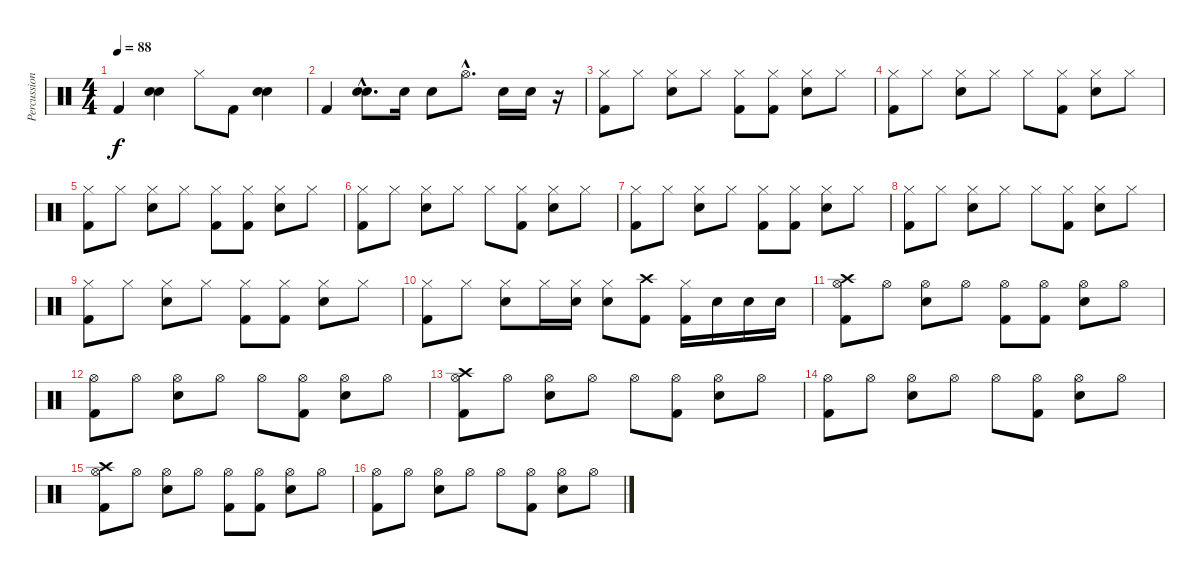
\track ("Percussion" "Percussion") {instrument percussion}
\staff {score}
\articulation defaults
\ts (4 4)
\tempo 88
\clef neutral
\ks c "Kick (hit) 2".4{dy f}
("Snare (hit) 2" "Snare (hit) 2").4 "Hi-Hat (closed)".8 "Kick (hit) 2".8 ("Snare (hit) 2" "Snare (hit) 2").4 |
"Kick (hit) 2".4 ("Snare (hit) 2"{hac} "Snare (hit) 2"{hac}).8{d} "Snare (hit) 2".16 "Snare (hit) 2".8 "Hi-Hat (open)"{hac}.8{d} "Snare (hit) 2".16 "Snare (hit) 2".16 r.16 |
("Hi-Hat (closed)" "Kick (hit) 2").8 "Hi-Hat (closed)".8 ("Hi-Hat (closed)" "Snare (hit) 2").8 "Hi-Hat (closed)".8 ("Hi-Hat (closed)" "Kick (hit) 2").8 ("Hi-Hat (closed)" "Kick (hit) 2").8 ("Hi-Hat (closed)" "Snare (hit) 2").8 "Hi-Hat (closed)".8 |
("Hi-Hat (closed)" "Kick (hit) 2").8 "Hi-Hat (closed)".8 ("Hi-Hat (closed)" "Snare (hit) 2").8 "Hi-Hat (closed)".8 "Hi-Hat (closed)".8 ("Hi-Hat (closed)" "Kick (hit) 2").8 ("Hi-Hat (closed)" "Snare (hit) 2").8 "Hi-Hat (closed)".8 |
("Hi-Hat (closed)" "Kick (hit) 2").8 "Hi-Hat (closed)".8 ("Hi-Hat (closed)" "Snare (hit) 2").8 "Hi-Hat (closed)".8 ("Hi-Hat (closed)" "Kick (hit) 2").8 ("Hi-Hat (closed)" "Kick (hit) 2").8 ("Hi-Hat (closed)" "Snare (hit) 2").8 "Hi-Hat (closed)".8 |
("Hi-Hat (closed)" "Kick (hit) 2").8 "Hi-Hat (closed)".8 ("Hi-Hat (closed)" "Snare (hit) 2").8 "Hi-Hat (closed)".8 "Hi-Hat (closed)".8 ("Hi-Hat (closed)" "Kick (hit) 2").8 ("Hi-Hat (closed)" "Snare (hit) 2").8 "Hi-Hat (closed)".8 |
("Hi-Hat (closed)" "Kick (hit) 2").8 "Hi-Hat (closed)".8 ("Hi-Hat (closed)" "Snare (hit) 2").8 "Hi-Hat (closed)".8 ("Hi-Hat (closed)" "Kick (hit) 2").8 ("Hi-Hat (closed)" "Kick (hit) 2").8 ("Hi-Hat (closed)" "Snare (hit) 2").8 "Hi-Hat (closed)".8 |
("Hi-Hat (closed)" "Kick (hit) 2").8 "Hi-Hat (closed)".8 ("Hi-Hat (closed)" "Snare (hit) 2").8 "Hi-Hat (closed)".8 "Hi-Hat (closed)".8 ("Hi-Hat (closed)" "Kick (hit) 2").8 ("Hi-Hat (closed)" "Snare (hit) 2").8 "Hi-Hat (closed)".8 |
("Hi-Hat (closed)" "Kick (hit) 2").8 "Hi-Hat (closed)".8 ("Hi-Hat (closed)" "Snare (hit) 2").8 "Hi-Hat (closed)".8 ("Hi-Hat (closed)" "Kick (hit) 2").8 ("Hi-Hat (closed)" "Kick (hit) 2").8 ("Hi-Hat (closed)" "Snare (hit) 2").8 "Hi-Hat (closed)".8 |
("Hi-Hat (closed)" "Kick (hit) 2").8 "Hi-Hat (closed)".8 ("Hi-Hat (closed)" "Snare (hit) 2").8 "Hi-Hat (closed)".16 ("Hi-Hat (closed)" "Snare (hit) 2").16 ("Hi-Hat (closed)" "Snare (hit) 2").8 ("Crash high (hit)" "Kick (hit) 2").8 ("Hi-Hat (closed)" "Kick (hit) 2").16 "Snare (hit) 2".16 "Snare (hit) 2".16 "Snare (hit) 2".16 |
("Crash high (hit)" "Hi-Hat (open)" "Kick (hit) 2").8 "Hi-Hat (open)".8 ("Hi-Hat (open)" "Snare (hit) 2").8 "Hi-Hat (open)".8 ("Hi-Hat (open)" "Kick (hit) 2").8 ("Hi-Hat (open)" "Kick (hit) 2").8 ("Hi-Hat (open)" "Snare (hit) 2").8 "Hi-Hat (open)".8 |
("Hi-Hat (open)" "Kick (hit) 2").8 "Hi-Hat (open)".8 ("Hi-Hat (open)" "Snare (hit) 2").8 "Hi-Hat (open)".8 "Hi-Hat (open)".8 ("Hi-Hat (open)" "Kick (hit) 2").8 ("Hi-Hat (open)" "Snare (hit) 2").8 "Hi-Hat (open)".8 |
("Crash high (hit)" "Hi-Hat (open)" "Kick (hit) 2").8 "Hi-Hat (open)".8 ("Hi-Hat (open)" "Snare (hit) 2").8 "Hi-Hat (open)".8 "Hi-Hat (open)".8 ("Hi-Hat (open)" "Kick (hit) 2").8 ("Hi-Hat (open)" "Snare (hit) 2").8 "Hi-Hat (open)".8 |
("Hi-Hat (open)" "Kick (hit) 2").8 "Hi-Hat (open)".8 ("Hi-Hat (open)" "Snare (hit) 2").8 "Hi-Hat (open)".8 "Hi-Hat (open)".8 ("Hi-Hat (open)" "Kick (hit) 2").8 ("Hi-Hat (open)" "Snare (hit) 2").8 "Hi-Hat (open)".8 |
("Crash high (hit)" "Hi-Hat (open)" "Kick (hit) 2").8 "Hi-Hat (open)".8 ("Hi-Hat (open)" "Snare (hit) 2").8 "Hi-Hat (open)".8 ("Hi-Hat (open)" "Kick (hit) 2").8 ("Hi-Hat (open)" "Kick (hit) 2").8 ("Hi-Hat (open)" "Snare (hit) 2").8 "Hi-Hat (open)".8 |
("Hi-Hat (open)" "Kick (hit) 2").8 "Hi-Hat (open)".8 ("Hi-Hat (open)" "Snare (hit) 2").8 "Hi-Hat (open)".8 "Hi-Hat (open)".8 ("Hi-Hat (open)" "Kick (hit) 2").8 ("Hi-Hat (open)" "Snare (hit) 2").8 "Hi-Hat (open)".8
